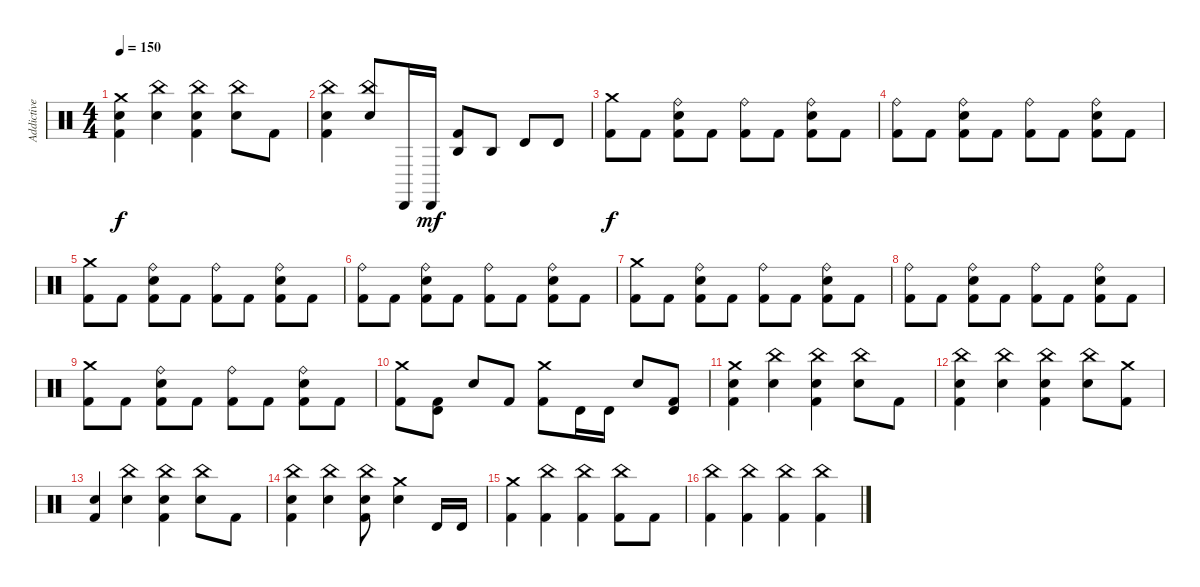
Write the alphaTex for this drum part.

\track ("Addictive Drums (MIDI)" "Addictive ") {instrument percussion}
\staff {score}
\articulation defaults
\ts (4 4)
\tempo 150
\clef neutral
\ks c
("Crash medium (hit)" "Kick (hit) 2" "Snare (hit) 2").4{dy f} ("Snare (hit) 2" "China (hit)").4 ("Kick (hit) 2" "China (hit)" "Snare (hit) 2").4 ("China (hit)" "Snare (hit) 2").8 "Kick (hit) 2".8 |
("Kick (hit) 2" "China (hit)" "Snare (hit) 2").4 ("Snare (hit) 2" "China (hit)").8 "Cabasa (hit)".16 "Cabasa (hit)".16{dy mf} ("Agogo high (hit)" "Kick (hit) 2").8 "Agogo high (hit)".8 "Timbale high (hit)".8 "Timbale high (hit)".8 |
("Kick (hit) 2" "Crash medium (hit)").8{dy f} "Kick (hit) 2".8 ("Ride (bell)" "Kick (hit) 2" "Snare (hit) 2").8 "Kick (hit) 2".8 ("Kick (hit) 2" "Ride (bell)").8 "Kick (hit) 2".8 ("Ride (bell)" "Kick (hit) 2" "Snare (hit) 2").8 "Kick (hit) 2".8 |
("Kick (hit) 2" "Ride (bell)").8 "Kick (hit) 2".8 ("Ride (bell)" "Kick (hit) 2" "Snare (hit) 2").8 "Kick (hit) 2".8 ("Kick (hit) 2" "Ride (bell)").8 "Kick (hit) 2".8 ("Snare (hit) 2" "Kick (hit) 2" "Ride (bell)").8 "Kick (hit) 2".8 |
("Kick (hit) 2" "Crash medium (hit)").8 "Kick (hit) 2".8 ("Ride (bell)" "Kick (hit) 2" "Snare (hit) 2").8 "Kick (hit) 2".8 ("Ride (bell)" "Kick (hit) 2").8 "Kick (hit) 2".8 ("Snare (hit) 2" "Kick (hit) 2" "Ride (bell)").8 "Kick (hit) 2".8 |
("Ride (bell)" "Kick (hit) 2").8 "Kick (hit) 2".8 ("Snare (hit) 2" "Kick (hit) 2" "Ride (bell)").8 "Kick (hit) 2".8 ("Ride (bell)" "Kick (hit) 2").8 "Kick (hit) 2".8 ("Ride (bell)" "Kick (hit) 2" "Snare (hit) 2").8 "Kick (hit) 2".8 |
("Crash medium (hit)" "Kick (hit) 2").8 "Kick (hit) 2".8 ("Ride (bell)" "Kick (hit) 2" "Snare (hit) 2").8 "Kick (hit) 2".8 ("Kick (hit) 2" "Ride (bell)").8 "Kick (hit) 2".8 ("Ride (bell)" "Kick (hit) 2" "Snare (hit) 2").8 "Kick (hit) 2".8 |
("Kick (hit) 2" "Ride (bell)").8 "Kick (hit) 2".8 ("Snare (hit) 2" "Kick (hit) 2" "Ride (bell)").8 "Kick (hit) 2".8 ("Kick (hit) 2" "Ride (bell)").8 "Kick (hit) 2".8 ("Snare (hit) 2" "Kick (hit) 2" "Ride (bell)").8 "Kick (hit) 2".8 |
("Kick (hit) 2" "Crash medium (hit)").8 "Kick (hit) 2".8 ("Snare (hit) 2" "Kick (hit) 2" "Ride (bell)").8 "Kick (hit) 2".8 ("Ride (bell)" "Kick (hit) 2").8 "Kick (hit) 2".8 ("Snare (hit) 2" "Kick (hit) 2" "Ride (bell)").8 "Kick (hit) 2".8 |
("Kick (hit) 2" "Crash medium (hit)").8 ("Timbale high (hit)" "Kick (hit) 2").8 "Snare (hit) 2".8 "Kick (hit) 2".8 ("Crash medium (hit)" "Kick (hit) 2").8 "Timbale high (hit)".16 "Timbale high (hit)".16 "Snare (hit) 2".8 ("Kick (hit) 2" "Timbale high (hit)").8 |
("Kick (hit) 2" "Snare (hit) 2" "Crash medium (hit)").4 ("Snare (hit) 2" "China (hit)").4 ("Snare (hit) 2" "China (hit)" "Kick (hit) 2").4 ("Snare (hit) 2" "China (hit)").8 "Kick (hit) 2".8 |
("Kick (hit) 2" "China (hit)" "Snare (hit) 2").4 ("China (hit)" "Snare (hit) 2").4 ("Kick (hit) 2" "China (hit)" "Snare (hit) 2").4 ("China (hit)" "Snare (hit) 2").8 ("Kick (hit) 2" "Crash medium (hit)").8 |
("Kick (hit) 2" "Snare (hit) 2").4 ("Snare (hit) 2" "China (hit)").4 ("Snare (hit) 2" "China (hit)" "Kick (hit) 2").4 ("Snare (hit) 2" "China (hit)").8 "Kick (hit) 2".8 |
("Kick (hit) 2" "China (hit)" "Snare (hit) 2").4 ("Snare (hit) 2" "China (hit)").4 ("Snare (hit) 2" "China (hit)" "Kick (hit) 2").8 ("Snare (hit) 2" "Crash medium (hit)").4 "Timbale high (hit)".16 "Timbale high (hit)".16 |
("Crash medium (hit)" "Kick (hit) 2").4 ("Kick (hit) 2" "China (hit)").4 ("Kick (hit) 2" "China (hit)").4 ("Kick (hit) 2" "China (hit)").8 "Kick (hit) 2".8 |
("China (hit)" "Kick (hit) 2").4 ("Kick (hit) 2" "China (hit)").4 ("Kick (hit) 2" "China (hit)").4 ("Kick (hit) 2" "China (hit)").4
